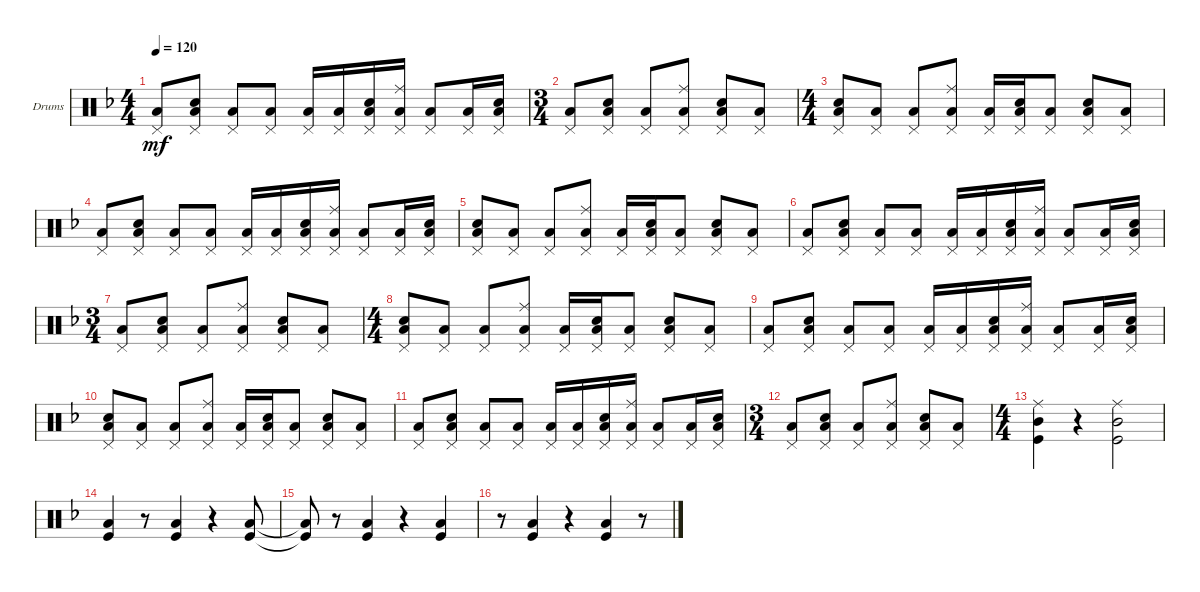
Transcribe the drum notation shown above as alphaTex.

\defaultSystemsLayout 4
\bracketExtendMode groupsimilarinstruments
\firstSystemTrackNameOrientation horizontal
\otherSystemsTrackNameOrientation horizontal
\track ("Drumkit" "Drums") {instrument percussion}
\staff {score}
\articulation defaults
\ts (4 4)
\tempo 120
\clef neutral
\ks f
("Pedal Hi-Hat (hit)" "Low Tom (hit)").8{dy mf} ("Pedal Hi-Hat (hit)" "Low Tom (hit)" "Snare (hit) 2").8 ("Pedal Hi-Hat (hit)" "Low Tom (hit)").8 ("Pedal Hi-Hat (hit)" "Low Tom (hit)").8 ("Pedal Hi-Hat (hit)" "Low Tom (hit)").16 ("Pedal Hi-Hat (hit)" "Low Tom (hit)").16 ("Pedal Hi-Hat (hit)" "Low Tom (hit)" "Snare (hit) 2").16 ("Pedal Hi-Hat (hit)" "Low Tom (hit)" "Ride (middle)").16 ("Pedal Hi-Hat (hit)" "Low Tom (hit)").8 ("Pedal Hi-Hat (hit)" "Low Tom (hit)").16 ("Pedal Hi-Hat (hit)" "Low Tom (hit)" "Snare (hit) 2").16 |
\ts (3 4)
("Pedal Hi-Hat (hit)" "Low Tom (hit)").8 ("Pedal Hi-Hat (hit)" "Low Tom (hit)" "Snare (hit) 2").8 ("Pedal Hi-Hat (hit)" "Low Tom (hit)").8 ("Pedal Hi-Hat (hit)" "Low Tom (hit)" "Ride (middle)").8 ("Pedal Hi-Hat (hit)" "Low Tom (hit)" "Snare (hit) 2").8 ("Pedal Hi-Hat (hit)" "Low Tom (hit)").8 |
\ts (4 4)
("Pedal Hi-Hat (hit)" "Low Tom (hit)" "Snare (hit) 2").8 ("Pedal Hi-Hat (hit)" "Low Tom (hit)").8 ("Pedal Hi-Hat (hit)" "Low Tom (hit)").8 ("Pedal Hi-Hat (hit)" "Low Tom (hit)" "Ride (middle)").8 ("Pedal Hi-Hat (hit)" "Low Tom (hit)").16 ("Pedal Hi-Hat (hit)" "Low Tom (hit)" "Snare (hit) 2").16 ("Pedal Hi-Hat (hit)" "Low Tom (hit)").8 ("Pedal Hi-Hat (hit)" "Low Tom (hit)" "Snare (hit) 2").8 ("Pedal Hi-Hat (hit)" "Low Tom (hit)").8 |
("Pedal Hi-Hat (hit)" "Low Tom (hit)").8 ("Pedal Hi-Hat (hit)" "Low Tom (hit)" "Snare (hit) 2").8 ("Pedal Hi-Hat (hit)" "Low Tom (hit)").8 ("Pedal Hi-Hat (hit)" "Low Tom (hit)").8 ("Pedal Hi-Hat (hit)" "Low Tom (hit)").16 ("Pedal Hi-Hat (hit)" "Low Tom (hit)").16 ("Pedal Hi-Hat (hit)" "Low Tom (hit)" "Snare (hit) 2").16 ("Pedal Hi-Hat (hit)" "Low Tom (hit)" "Ride (middle)").16 ("Pedal Hi-Hat (hit)" "Low Tom (hit)").8 ("Pedal Hi-Hat (hit)" "Low Tom (hit)").16 ("Pedal Hi-Hat (hit)" "Low Tom (hit)" "Snare (hit) 2").16 |
("Pedal Hi-Hat (hit)" "Low Tom (hit)" "Snare (hit) 2").8 ("Pedal Hi-Hat (hit)" "Low Tom (hit)").8 ("Pedal Hi-Hat (hit)" "Low Tom (hit)").8 ("Pedal Hi-Hat (hit)" "Low Tom (hit)" "Ride (middle)").8 ("Pedal Hi-Hat (hit)" "Low Tom (hit)").16 ("Pedal Hi-Hat (hit)" "Low Tom (hit)" "Snare (hit) 2").16 ("Pedal Hi-Hat (hit)" "Low Tom (hit)").8 ("Pedal Hi-Hat (hit)" "Low Tom (hit)" "Snare (hit) 2").8 ("Pedal Hi-Hat (hit)" "Low Tom (hit)").8 |
("Pedal Hi-Hat (hit)" "Low Tom (hit)").8 ("Pedal Hi-Hat (hit)" "Low Tom (hit)" "Snare (hit) 2").8 ("Pedal Hi-Hat (hit)" "Low Tom (hit)").8 ("Pedal Hi-Hat (hit)" "Low Tom (hit)").8 ("Pedal Hi-Hat (hit)" "Low Tom (hit)").16 ("Pedal Hi-Hat (hit)" "Low Tom (hit)").16 ("Pedal Hi-Hat (hit)" "Low Tom (hit)" "Snare (hit) 2").16 ("Pedal Hi-Hat (hit)" "Low Tom (hit)" "Ride (middle)").16 ("Pedal Hi-Hat (hit)" "Low Tom (hit)").8 ("Pedal Hi-Hat (hit)" "Low Tom (hit)").16 ("Pedal Hi-Hat (hit)" "Low Tom (hit)" "Snare (hit) 2").16 |
\ts (3 4)
("Pedal Hi-Hat (hit)" "Low Tom (hit)").8 ("Pedal Hi-Hat (hit)" "Low Tom (hit)" "Snare (hit) 2").8 ("Pedal Hi-Hat (hit)" "Low Tom (hit)").8 ("Pedal Hi-Hat (hit)" "Low Tom (hit)" "Ride (middle)").8 ("Pedal Hi-Hat (hit)" "Low Tom (hit)" "Snare (hit) 2").8 ("Pedal Hi-Hat (hit)" "Low Tom (hit)").8 |
\ts (4 4)
("Pedal Hi-Hat (hit)" "Low Tom (hit)" "Snare (hit) 2").8 ("Pedal Hi-Hat (hit)" "Low Tom (hit)").8 ("Pedal Hi-Hat (hit)" "Low Tom (hit)").8 ("Pedal Hi-Hat (hit)" "Low Tom (hit)" "Ride (middle)").8 ("Pedal Hi-Hat (hit)" "Low Tom (hit)").16 ("Pedal Hi-Hat (hit)" "Low Tom (hit)" "Snare (hit) 2").16 ("Pedal Hi-Hat (hit)" "Low Tom (hit)").8 ("Pedal Hi-Hat (hit)" "Low Tom (hit)" "Snare (hit) 2").8 ("Pedal Hi-Hat (hit)" "Low Tom (hit)").8 |
("Pedal Hi-Hat (hit)" "Low Tom (hit)").8 ("Pedal Hi-Hat (hit)" "Low Tom (hit)" "Snare (hit) 2").8 ("Pedal Hi-Hat (hit)" "Low Tom (hit)").8 ("Pedal Hi-Hat (hit)" "Low Tom (hit)").8 ("Pedal Hi-Hat (hit)" "Low Tom (hit)").16 ("Pedal Hi-Hat (hit)" "Low Tom (hit)").16 ("Pedal Hi-Hat (hit)" "Low Tom (hit)" "Snare (hit) 2").16 ("Pedal Hi-Hat (hit)" "Low Tom (hit)" "Ride (middle)").16 ("Pedal Hi-Hat (hit)" "Low Tom (hit)").8 ("Pedal Hi-Hat (hit)" "Low Tom (hit)").16 ("Pedal Hi-Hat (hit)" "Low Tom (hit)" "Snare (hit) 2").16 |
("Pedal Hi-Hat (hit)" "Low Tom (hit)" "Snare (hit) 2").8 ("Pedal Hi-Hat (hit)" "Low Tom (hit)").8 ("Pedal Hi-Hat (hit)" "Low Tom (hit)").8 ("Pedal Hi-Hat (hit)" "Low Tom (hit)" "Ride (middle)").8 ("Pedal Hi-Hat (hit)" "Low Tom (hit)").16 ("Pedal Hi-Hat (hit)" "Low Tom (hit)" "Snare (hit) 2").16 ("Pedal Hi-Hat (hit)" "Low Tom (hit)").8 ("Pedal Hi-Hat (hit)" "Low Tom (hit)" "Snare (hit) 2").8 ("Pedal Hi-Hat (hit)" "Low Tom (hit)").8 |
("Pedal Hi-Hat (hit)" "Low Tom (hit)").8 ("Pedal Hi-Hat (hit)" "Low Tom (hit)" "Snare (hit) 2").8 ("Pedal Hi-Hat (hit)" "Low Tom (hit)").8 ("Pedal Hi-Hat (hit)" "Low Tom (hit)").8 ("Pedal Hi-Hat (hit)" "Low Tom (hit)").16 ("Pedal Hi-Hat (hit)" "Low Tom (hit)").16 ("Pedal Hi-Hat (hit)" "Low Tom (hit)" "Snare (hit) 2").16 ("Pedal Hi-Hat (hit)" "Low Tom (hit)" "Ride (middle)").16 ("Pedal Hi-Hat (hit)" "Low Tom (hit)").8 ("Pedal Hi-Hat (hit)" "Low Tom (hit)").16 ("Pedal Hi-Hat (hit)" "Low Tom (hit)" "Snare (hit) 2").16 |
\ts (3 4)
("Pedal Hi-Hat (hit)" "Low Tom (hit)").8 ("Pedal Hi-Hat (hit)" "Low Tom (hit)" "Snare (hit) 2").8 ("Pedal Hi-Hat (hit)" "Low Tom (hit)").8 ("Pedal Hi-Hat (hit)" "Low Tom (hit)" "Ride (middle)").8 ("Pedal Hi-Hat (hit)" "Low Tom (hit)" "Snare (hit) 2").8 ("Pedal Hi-Hat (hit)" "Low Tom (hit)").8 |
\ts (4 4)
("Kick (hit)" "Mid Tom (hit)" "Ride (middle)").4 r.4 ("Kick (hit)" "Mid Tom (hit)" "Ride (middle)").2 |
("Kick (hit)" "Low Tom (hit)").4 r.8 ("Kick (hit)" "Low Tom (hit)").4 r.4 ("Kick (hit)" "Low Tom (hit)").8 |
("Kick (hit)"{t} "Low Tom (hit)"{t}).8 r.8 ("Low Tom (hit)" "Kick (hit)").4 r.4 ("Kick (hit)" "Low Tom (hit)").4 |
r.8 ("Low Tom (hit)" "Kick (hit)").4 r.4 ("Kick (hit)" "Low Tom (hit)").4 r.8
